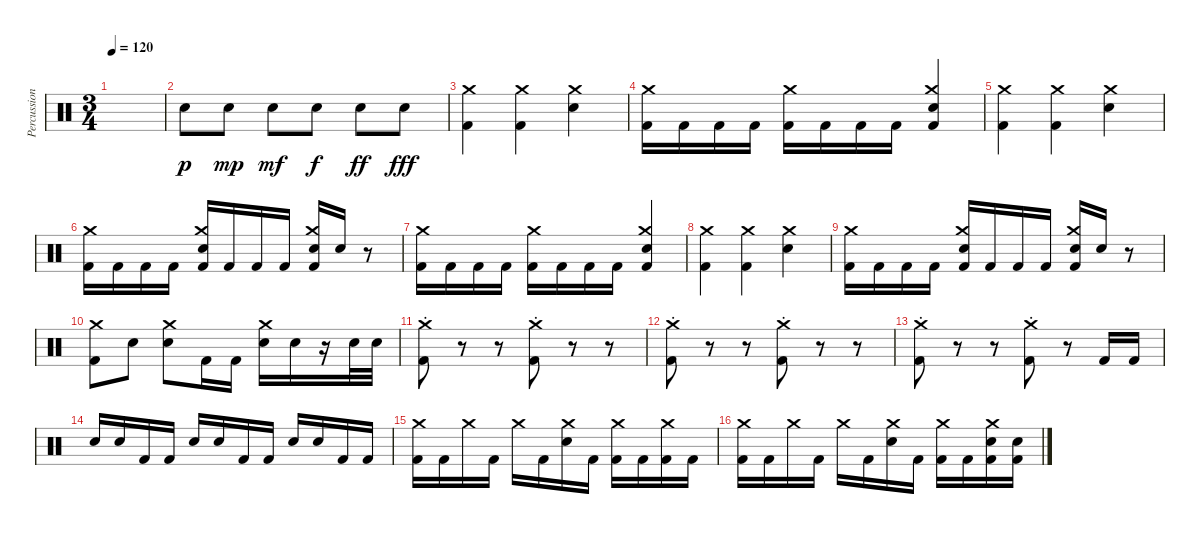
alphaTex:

\track ("Percussion" "Percussion") {instrument percussion}
\staff {score}
\articulation defaults
\ts (3 4)
\tempo 120
\clef neutral
\ks c
|
"Electric Snare (hit)".8{dy p} "Electric Snare (hit)".8{dy mp} "Electric Snare (hit)".8{dy mf} "Electric Snare (hit)".8{dy f} "Electric Snare (hit)".8{dy ff} "Electric Snare (hit)".8{dy fff} |
("Crash medium (hit)" "Kick (hit) 2").4 ("Crash medium (hit)" "Kick (hit) 2").4 ("Crash medium (hit)" "Electric Snare (hit)").4 |
("Crash medium (hit)" "Kick (hit) 2").16 "Kick (hit) 2".16 "Kick (hit) 2".16 "Kick (hit) 2".16 ("Crash medium (hit)" "Kick (hit) 2").16 "Kick (hit) 2".16 "Kick (hit) 2".16 "Kick (hit) 2".16 ("Crash medium (hit)" "Electric Snare (hit)" "Kick (hit) 2").4 |
("Crash medium (hit)" "Kick (hit) 2").4 ("Crash medium (hit)" "Kick (hit) 2").4 ("Crash medium (hit)" "Electric Snare (hit)").4 |
("Crash medium (hit)" "Kick (hit) 2").16 "Kick (hit) 2".16 "Kick (hit) 2".16 "Kick (hit) 2".16 ("Crash medium (hit)" "Electric Snare (hit)" "Kick (hit) 2").16 "Kick (hit) 2".16 "Kick (hit) 2".16 "Kick (hit) 2".16 ("Crash medium (hit)" "Electric Snare (hit)" "Kick (hit) 2").16 "Electric Snare (hit)".16 r.8 |
("Crash medium (hit)" "Kick (hit) 2").16 "Kick (hit) 2".16 "Kick (hit) 2".16 "Kick (hit) 2".16 ("Crash medium (hit)" "Kick (hit) 2").16 "Kick (hit) 2".16 "Kick (hit) 2".16 "Kick (hit) 2".16 ("Crash medium (hit)" "Electric Snare (hit)" "Kick (hit) 2").4 |
("Crash medium (hit)" "Kick (hit) 2").4 ("Crash medium (hit)" "Kick (hit) 2").4 ("Crash medium (hit)" "Electric Snare (hit)").4 |
("Crash medium (hit)" "Kick (hit) 2").16 "Kick (hit) 2".16 "Kick (hit) 2".16 "Kick (hit) 2".16 ("Crash medium (hit)" "Electric Snare (hit)" "Kick (hit) 2").16 "Kick (hit) 2".16 "Kick (hit) 2".16 "Kick (hit) 2".16 ("Crash medium (hit)" "Electric Snare (hit)" "Kick (hit) 2").16 "Electric Snare (hit)".16 r.8 |
("Crash medium (hit)" "Kick (hit) 2").8 "Electric Snare (hit)".8 ("Crash medium (hit)" "Electric Snare (hit)").8 "Kick (hit) 2".16 "Kick (hit) 2".16 ("Crash medium (hit)" "Electric Snare (hit)").16 "Electric Snare (hit)".16 r.16 "Electric Snare (hit)".32 "Electric Snare (hit)".32 |
("Crash medium (hit)"{st} "Kick (hit) 2"{st}).8 r.8 r.8 ("Crash medium (hit)"{st} "Kick (hit) 2"{st}).8 r.8 r.8 |
("Crash medium (hit)"{st} "Kick (hit) 2"{st}).8 r.8 r.8 ("Crash medium (hit)"{st} "Kick (hit) 2"{st}).8 r.8 r.8 |
("Crash medium (hit)"{st} "Kick (hit) 2"{st}).8 r.8 r.8 ("Crash medium (hit)"{st} "Kick (hit) 2"{st}).8 r.8 "Kick (hit) 2".16 "Kick (hit) 2".16 |
"Electric Snare (hit)".16 "Electric Snare (hit)".16 "Kick (hit) 2".16 "Kick (hit) 2".16 "Electric Snare (hit)".16 "Electric Snare (hit)".16 "Kick (hit) 2".16 "Kick (hit) 2".16 "Electric Snare (hit)".16 "Electric Snare (hit)".16 "Kick (hit) 2".16 "Kick (hit) 2".16 |
("Crash medium (hit)" "Kick (hit) 2").16 "Kick (hit) 2".16 "Crash medium (hit)".16 "Kick (hit) 2".16 "Crash medium (hit)".16 "Kick (hit) 2".16 ("Crash medium (hit)" "Electric Snare (hit)").16 "Kick (hit) 2".16 ("Crash medium (hit)" "Kick (hit) 2").16 "Kick (hit) 2".16 ("Crash medium (hit)" "Kick (hit) 2").16 "Kick (hit) 2".16 |
("Crash medium (hit)" "Kick (hit) 2").16 "Kick (hit) 2".16 "Crash medium (hit)".16 "Kick (hit) 2".16 "Crash medium (hit)".16 "Kick (hit) 2".16 ("Crash medium (hit)" "Electric Snare (hit)").16 "Kick (hit) 2".16 ("Crash medium (hit)" "Kick (hit) 2").16 "Kick (hit) 2".16 ("Crash medium (hit)" "Electric Snare (hit)" "Kick (hit) 2").16 ("Electric Snare (hit)" "Kick (hit) 2").16
